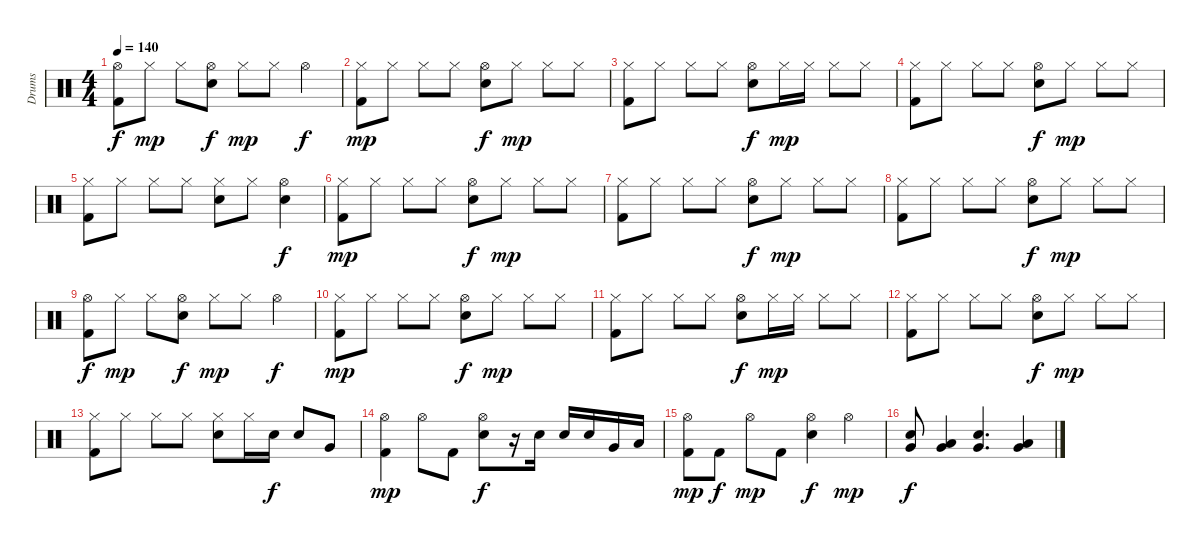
\track ("Drums" "Drums") {instrument percussion}
\staff {score}
\articulation defaults
\ts (4 4)
\tempo 140
\clef neutral
\ks c
("Hi-Hat (open)" "Kick (hit) 2").8{dy f} "Hi-Hat (closed)".8{dy mp} "Hi-Hat (closed)".8 ("Hi-Hat (open)" "Snare (hit) 2").8{dy f} "Hi-Hat (closed)".8{dy mp} "Hi-Hat (closed)".8 "Hi-Hat (open)".4{dy f} |
("Hi-Hat (closed)" "Kick (hit) 2").8{dy mp} "Hi-Hat (closed)".8 "Hi-Hat (closed)".8 "Hi-Hat (closed)".8 ("Hi-Hat (open)" "Snare (hit) 2").8{dy f} "Hi-Hat (closed)".8{dy mp} "Hi-Hat (closed)".8 "Hi-Hat (closed)".8 |
("Hi-Hat (closed)" "Kick (hit) 2").8 "Hi-Hat (closed)".8 "Hi-Hat (closed)".8 "Hi-Hat (closed)".8 ("Hi-Hat (open)" "Snare (hit) 2").8{dy f} "Hi-Hat (closed)".16{dy mp} "Hi-Hat (closed)".16 "Hi-Hat (closed)".8 "Hi-Hat (closed)".8 |
("Hi-Hat (closed)" "Kick (hit) 2").8 "Hi-Hat (closed)".8 "Hi-Hat (closed)".8 "Hi-Hat (closed)".8 ("Hi-Hat (open)" "Snare (hit) 2").8{dy f} "Hi-Hat (closed)".8{dy mp} "Hi-Hat (closed)".8 "Hi-Hat (closed)".8 |
("Hi-Hat (closed)" "Kick (hit) 2").8 "Hi-Hat (closed)".8 "Hi-Hat (closed)".8 "Hi-Hat (closed)".8 ("Hi-Hat (closed)" "Snare (hit) 2").8 "Hi-Hat (closed)".8 ("Hi-Hat (open)" "Snare (hit) 2").4{dy f} |
("Hi-Hat (closed)" "Kick (hit) 2").8{dy mp} "Hi-Hat (closed)".8 "Hi-Hat (closed)".8 "Hi-Hat (closed)".8 ("Hi-Hat (open)" "Snare (hit) 2").8{dy f} "Hi-Hat (closed)".8{dy mp} "Hi-Hat (closed)".8 "Hi-Hat (closed)".8 |
("Hi-Hat (closed)" "Kick (hit) 2").8 "Hi-Hat (closed)".8 "Hi-Hat (closed)".8 "Hi-Hat (closed)".8 ("Hi-Hat (open)" "Snare (hit) 2").8{dy f} "Hi-Hat (closed)".8{dy mp} "Hi-Hat (closed)".8 "Hi-Hat (closed)".8 |
("Hi-Hat (closed)" "Kick (hit) 2").8 "Hi-Hat (closed)".8 "Hi-Hat (closed)".8 "Hi-Hat (closed)".8 ("Hi-Hat (open)" "Snare (hit) 2").8{dy f} "Hi-Hat (closed)".8{dy mp} "Hi-Hat (closed)".8 "Hi-Hat (closed)".8 |
("Hi-Hat (open)" "Kick (hit) 2").8{dy f} "Hi-Hat (closed)".8{dy mp} "Hi-Hat (closed)".8 ("Hi-Hat (open)" "Snare (hit) 2").8{dy f} "Hi-Hat (closed)".8{dy mp} "Hi-Hat (closed)".8 "Hi-Hat (open)".4{dy f} |
("Hi-Hat (closed)" "Kick (hit) 2").8{dy mp} "Hi-Hat (closed)".8 "Hi-Hat (closed)".8 "Hi-Hat (closed)".8 ("Hi-Hat (open)" "Snare (hit) 2").8{dy f} "Hi-Hat (closed)".8{dy mp} "Hi-Hat (closed)".8 "Hi-Hat (closed)".8 |
("Hi-Hat (closed)" "Kick (hit) 2").8 "Hi-Hat (closed)".8 "Hi-Hat (closed)".8 "Hi-Hat (closed)".8 ("Hi-Hat (open)" "Snare (hit) 2").8{dy f} "Hi-Hat (closed)".16{dy mp} "Hi-Hat (closed)".16 "Hi-Hat (closed)".8 "Hi-Hat (closed)".8 |
("Hi-Hat (closed)" "Kick (hit) 2").8 "Hi-Hat (closed)".8 "Hi-Hat (closed)".8 "Hi-Hat (closed)".8 ("Hi-Hat (open)" "Snare (hit) 2").8{dy f} "Hi-Hat (closed)".8{dy mp} "Hi-Hat (closed)".8 "Hi-Hat (closed)".8 |
("Hi-Hat (closed)" "Kick (hit) 2").8 "Hi-Hat (closed)".8 "Hi-Hat (closed)".8 "Hi-Hat (closed)".8 ("Hi-Hat (closed)" "Snare (hit) 2").8 "Hi-Hat (closed)".16 "Snare (hit) 2".16{dy f} "Snare (hit) 2".8 "Very Low Tom (hit)".8 |
("Hi-Hat (open)" "Kick (hit) 2").4{dy mp} "Hi-Hat (open)".8 "Kick (hit) 2".8 ("Hi-Hat (open)" "Snare (hit) 2").8{dy f} r.16 "Snare (hit) 2".16 "Snare (hit) 2".16 "Snare (hit) 2".16 "Very Low Tom (hit)".16 "Low Floor Tom (hit)".16 |
("Hi-Hat (open)" "Kick (hit) 2").8{dy mp} "Kick (hit) 2".8{dy f} "Hi-Hat (open)".8{dy mp} "Kick (hit) 2".8 ("Hi-Hat (open)" "Snare (hit) 2").4{dy f} "Hi-Hat (open)".4{dy mp} |
("Snare (hit) 2" "Very Low Tom (hit)").8{dy f} ("Very Low Tom (hit)" "Low Floor Tom (hit)").4 ("Snare (hit) 2" "Very Low Tom (hit)").4{d} ("Very Low Tom (hit)" "Low Floor Tom (hit)").4
